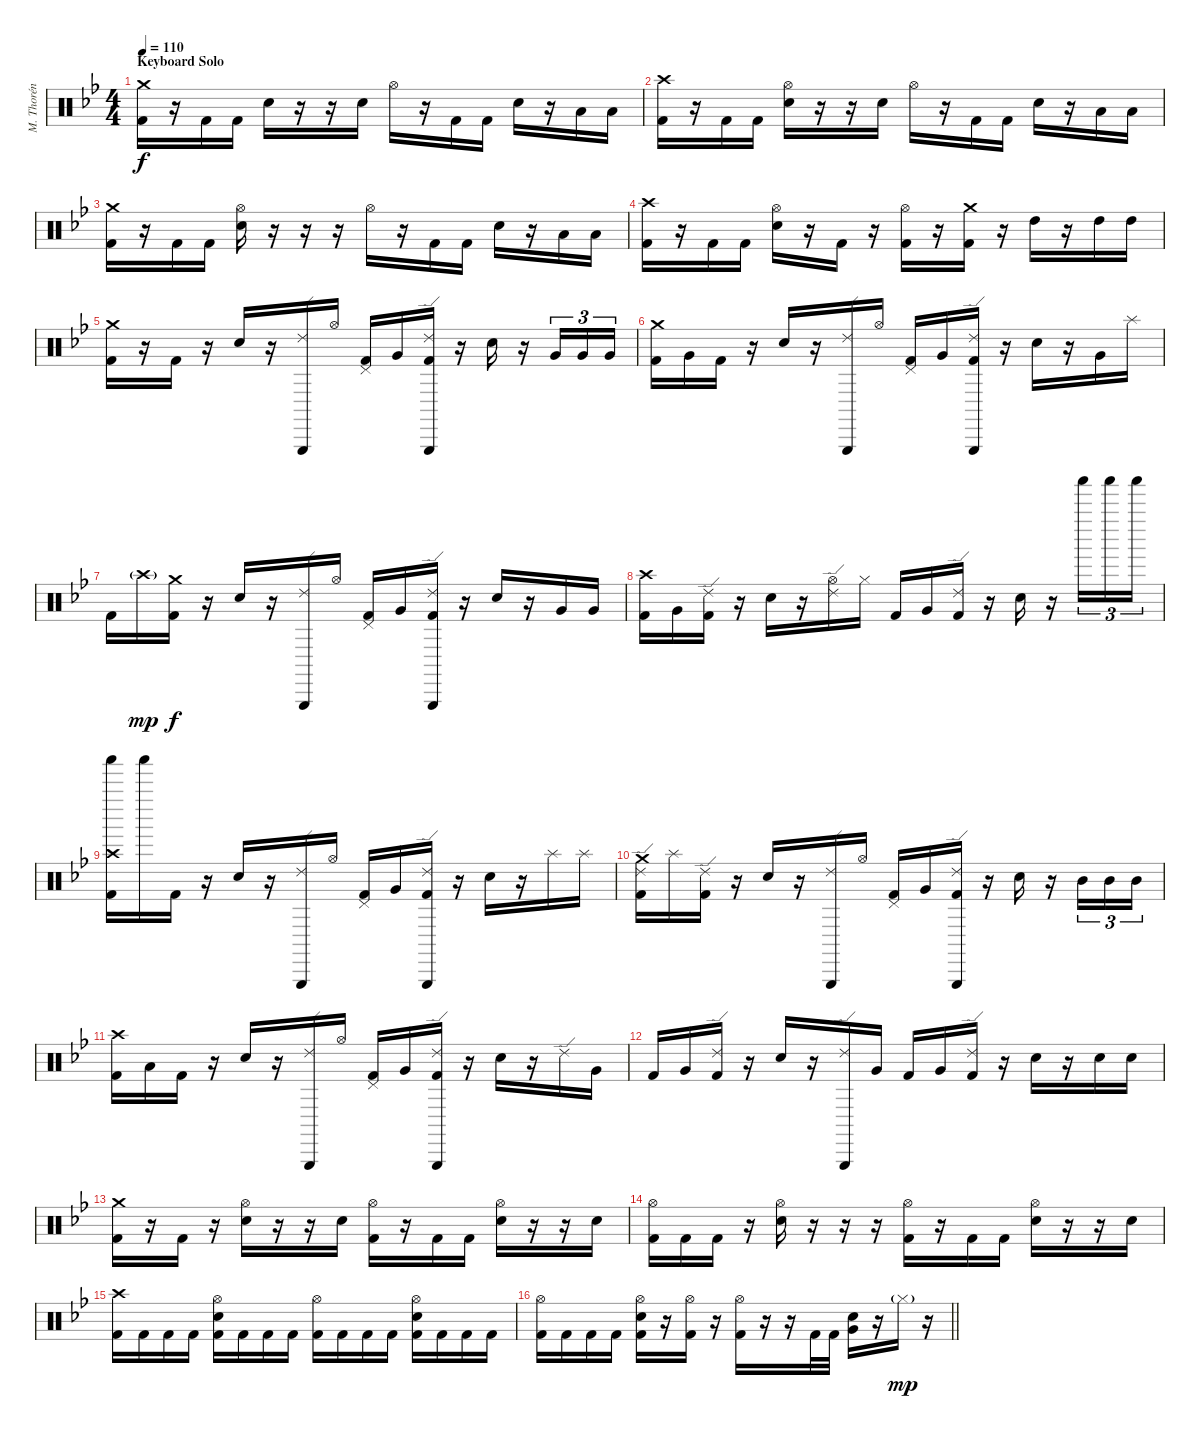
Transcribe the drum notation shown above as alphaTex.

\track ("M. Thorén (Drums)" "M. Thorén ") {instrument percussion}
\staff {score}
\articulation defaults
\ts (4 4)
\section ("" "Keyboard Solo")
\tempo 110
\clef neutral
\ks gminor
("Crash medium (hit)" "Kick (hit) 2").16{dy f} r.16 "Kick (hit) 2".16 "Kick (hit) 2".16 "Electric Snare (hit)".16 r.16 r.16 "Electric Snare (hit)".16 "Hi-Hat (open)".16 r.16 "Kick (hit) 2".16 "Kick (hit) 2".16 "Electric Snare (hit)".16 r.16 "Low Tom (hit)".16 "Low Tom (hit)".16 |
("Crash high (hit)" "Kick (hit) 2").16 r.16 "Kick (hit) 2".16 "Kick (hit) 2".16 ("Hi-Hat (open)" "Electric Snare (hit)").16 r.16 r.16 "Electric Snare (hit)".16 "Hi-Hat (open)".16 r.16 "Kick (hit) 2".16 "Kick (hit) 2".16 "Electric Snare (hit)".16 r.16 "Low Tom (hit)".16 "Low Tom (hit)".16 |
("Crash medium (hit)" "Kick (hit) 2").16 r.16 "Kick (hit) 2".16 "Kick (hit) 2".16 ("Hi-Hat (open)" "Electric Snare (hit)").16 r.16 r.16 r.16 "Hi-Hat (open)".16 r.16 "Kick (hit) 2".16 "Kick (hit) 2".16 "Electric Snare (hit)".16 r.16 "Low Tom (hit)".16 "Low Tom (hit)".16 |
("Crash high (hit)" "Kick (hit) 2").16 r.16 "Kick (hit) 2".16 "Kick (hit) 2".16 ("Hi-Hat (open)" "Electric Snare (hit)").16 r.16 "Kick (hit) 2".16 r.16 ("Hi-Hat (open)" "Kick (hit) 2").16 r.16 ("Crash medium (hit)" "Kick (hit) 2").16 r.16 "High Tom (hit)".16 r.16 "High Tom (hit)".16 "High Tom (hit)".16 |
("Crash medium (hit)" "Kick (hit) 2").16 r.16 "Kick (hit) 2".16 r.16 "Electric Snare (hit)".16 r.16 ("Triangle (hit)" "Ride (edge) 2").16 "Hi-Hat (open)".16 ("Pedal Hi-Hat (hit)" "Kick (hit) 2").16 "Very Low Tom (hit)".16 ("Triangle (hit)" "Ride (edge) 2" "Kick (hit) 2").16 r.16 "Electric Snare (hit)".16 r.16 "Very Low Tom (hit)".16{tu (3 2)} "Very Low Tom (hit)".16{tu (3 2)} "Very Low Tom (hit)".16{tu (3 2)} |
("Crash medium (hit)" "Kick (hit) 2").16 "Very Low Tom (hit)".16 "Kick (hit) 2".16 r.16 "Electric Snare (hit)".16 r.16 ("Triangle (hit)" "Ride (edge) 2").16 "Hi-Hat (open)".16 ("Pedal Hi-Hat (hit)" "Kick (hit) 2").16 "Very Low Tom (hit)".16 ("Triangle (hit)" "Ride (edge) 2" "Kick (hit) 2").16 r.16 "Electric Snare (hit)".16 r.16 "Very Low Tom (hit)".16 "Splash (hit)".16 |
"Kick (hit) 2".16 "Crash high (hit)"{g}.16{dy mp} ("Crash medium (hit)" "Kick (hit) 2").16{dy f} r.16 "Electric Snare (hit)".16 r.16 ("Triangle (hit)" "Ride (edge) 2").16 "Hi-Hat (open)".16 ("Pedal Hi-Hat (hit)" "Kick (hit) 2").16 "Very Low Tom (hit)".16 ("Triangle (hit)" "Ride (edge) 2" "Kick (hit) 2").16 r.16 "Electric Snare (hit)".16 r.16 "Very Low Tom (hit)".16 "Very Low Tom (hit)".16 |
("Crash high (hit)" "Kick (hit) 2").16 "Very Low Tom (hit)".16 ("Ride (edge) 2" "Kick (hit) 2").16 r.16 "Electric Snare (hit)".16 r.16 ("Ride (edge) 2" "Hi-Hat (open)").16 "Hi-Hat (closed)".16 "Kick (hit) 2".16 "Very Low Tom (hit)".16 ("Ride (edge) 2" "Kick (hit) 2").16 r.16 "Electric Snare (hit)".16 r.16 "Shaker (hit)".16{tu (3 2)} "Shaker (hit)".16{tu (3 2)} "Shaker (hit)".16{tu (3 2)} |
("Shaker (hit)" "Crash high (hit)" "Kick (hit) 2").16 "Shaker (hit)".16 "Kick (hit) 2".16 r.16 "Electric Snare (hit)".16 r.16 ("Triangle (hit)" "Ride (edge) 2").16 "Hi-Hat (open)".16 ("Pedal Hi-Hat (hit)" "Kick (hit) 2").16 "Very Low Tom (hit)".16 ("Triangle (hit)" "Ride (edge) 2" "Kick (hit) 2").16 r.16 "Electric Snare (hit)".16 r.16 "Splash (hit)".16 "Splash (hit)".16 |
("Ride (edge) 2" "Crash medium (hit)" "Kick (hit) 2").16 "Splash (hit)".16 ("Ride (edge) 2" "Kick (hit) 2").16 r.16 "Electric Snare (hit)".16 r.16 ("Triangle (hit)" "Ride (edge) 2").16 "Hi-Hat (open)".16 ("Pedal Hi-Hat (hit)" "Kick (hit) 2").16 "Very Low Tom (hit)".16 ("Triangle (hit)" "Ride (edge) 2" "Kick (hit) 2").16 r.16 "Electric Snare (hit)".16 r.16 "Mid Tom (hit)".16{tu (3 2)} "Mid Tom (hit)".16{tu (3 2)} "Mid Tom (hit)".16{tu (3 2)} |
("Crash high (hit)" "Kick (hit) 2").16 "Low Tom (hit)".16 "Kick (hit) 2".16 r.16 "Electric Snare (hit)".16 r.16 ("Triangle (hit)" "Ride (edge) 2").16 "Hi-Hat (open)".16 ("Pedal Hi-Hat (hit)" "Kick (hit) 2").16 "Very Low Tom (hit)".16 ("Triangle (hit)" "Ride (edge) 2" "Kick (hit) 2").16 r.16 "Electric Snare (hit)".16 r.16 "Ride (edge) 2".16 "Very Low Tom (hit)".16 |
"Kick (hit) 2".16 "Very Low Tom (hit)".16 ("Ride (edge) 2" "Kick (hit) 2").16 r.16 "Electric Snare (hit)".16 r.16 ("Triangle (hit)" "Ride (edge) 2").16 "Very Low Tom (hit)".16 "Kick (hit) 2".16 "Very Low Tom (hit)".16 ("Ride (edge) 2" "Kick (hit) 2").16 r.16 "Electric Snare (hit)".16 r.16 "Electric Snare (hit)".16 "Electric Snare (hit)".16 |
("Crash medium (hit)" "Kick (hit) 2").16 r.16 "Kick (hit) 2".16 r.16 ("Hi-Hat (open)" "Electric Snare (hit)").16 r.16 r.16 "Electric Snare (hit)".16 ("Hi-Hat (open)" "Kick (hit) 2").16 r.16 "Kick (hit) 2".16 "Kick (hit) 2".16 ("Hi-Hat (open)" "Electric Snare (hit)").16 r.16 r.16 "Electric Snare (hit)".16 |
("Hi-Hat (open)" "Kick (hit) 2").16 "Kick (hit) 2".16 "Kick (hit) 2".16 r.16 ("Hi-Hat (open)" "Electric Snare (hit)").16 r.16 r.16 r.16 ("Hi-Hat (open)" "Kick (hit) 2").16 r.16 "Kick (hit) 2".16 "Kick (hit) 2".16 ("Hi-Hat (open)" "Electric Snare (hit)").16 r.16 r.16 "Electric Snare (hit)".16 |
("Crash high (hit)" "Kick (hit) 2").16 "Kick (hit) 2".16 "Kick (hit) 2".16 "Kick (hit) 2".16 ("Hi-Hat (open)" "Electric Snare (hit)" "Kick (hit) 2").16 "Kick (hit) 2".16 "Kick (hit) 2".16 "Kick (hit) 2".16 ("Hi-Hat (open)" "Kick (hit) 2").16 "Kick (hit) 2".16 "Kick (hit) 2".16 "Kick (hit) 2".16 ("Hi-Hat (open)" "Electric Snare (hit)" "Kick (hit) 2").16 "Kick (hit) 2".16 "Kick (hit) 2".16 "Kick (hit) 2".16 |
\barLineRight lightlight
("Hi-Hat (open)" "Kick (hit) 2").16 "Kick (hit) 2".16 "Kick (hit) 2".16 "Kick (hit) 2".16 ("Hi-Hat (open)" "Electric Snare (hit)" "Kick (hit) 2").16 r.16 ("Hi-Hat (open)" "Kick (hit) 2").16 r.16 ("Hi-Hat (open)" "Kick (hit) 2").16 r.16 r.16 "Kick (hit) 2".32 "Kick (hit) 2".32 ("Electric Snare (hit)" "Very Low Tom (hit)").16 r.16 "Hi-Hat (closed)"{g}.16{dy mp} r.16
